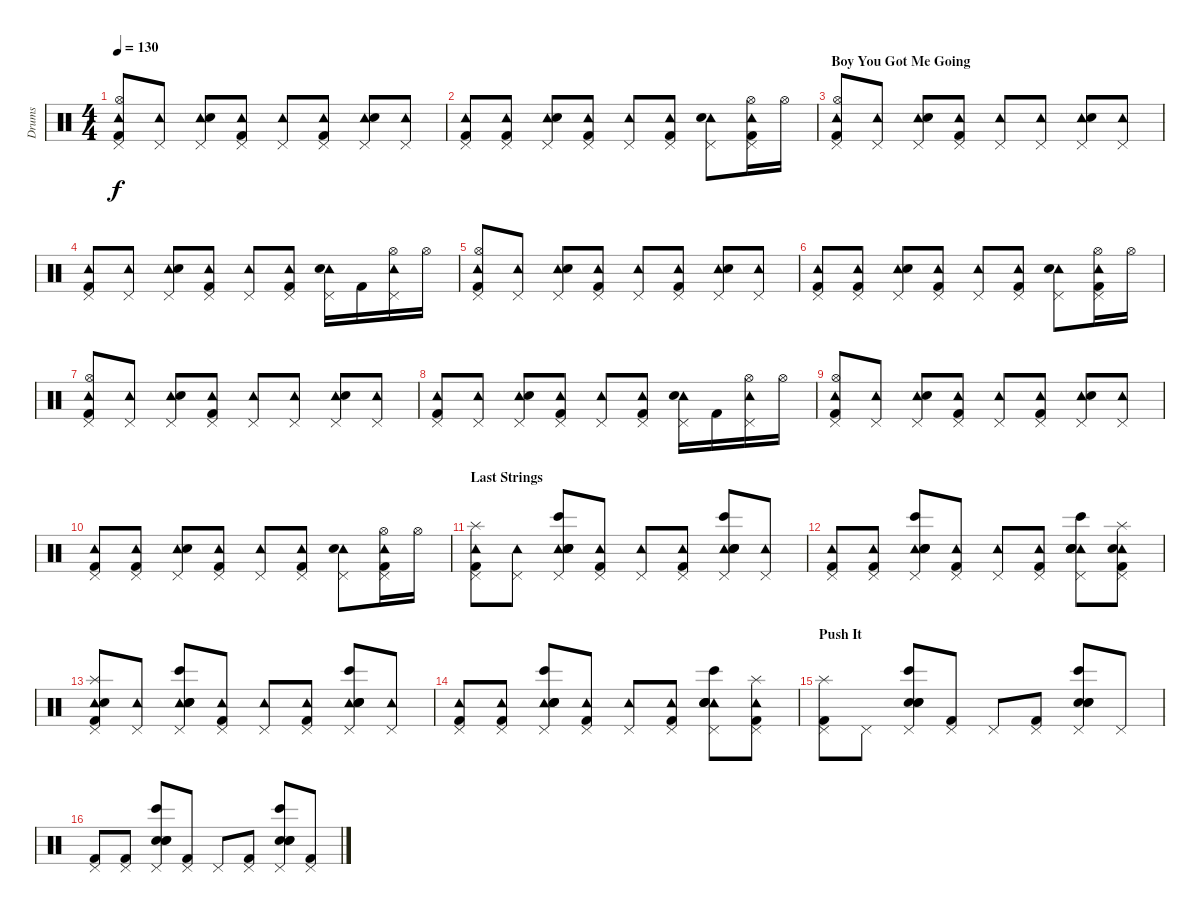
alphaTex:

\track ("Drums" "Drums") {instrument percussion}
\staff {score}
\articulation defaults
\ts (4 4)
\tempo 130
\clef neutral
\ks c
("Tambourine (hit)" "Pedal Hi-Hat (hit)" "Hi-Hat (open)" "Kick (hit) 2").8{dy f} ("Tambourine (hit)" "Pedal Hi-Hat (hit)").8 ("Tambourine (hit)" "Pedal Hi-Hat (hit)" "Electric Snare (hit)").8 ("Tambourine (hit)" "Pedal Hi-Hat (hit)" "Kick (hit) 2").8 ("Tambourine (hit)" "Pedal Hi-Hat (hit)").8 ("Tambourine (hit)" "Pedal Hi-Hat (hit)" "Kick (hit) 2").8 ("Tambourine (hit)" "Pedal Hi-Hat (hit)" "Electric Snare (hit)").8 ("Tambourine (hit)" "Pedal Hi-Hat (hit)").8 |
("Tambourine (hit)" "Pedal Hi-Hat (hit)" "Kick (hit) 2").8 ("Tambourine (hit)" "Pedal Hi-Hat (hit)" "Kick (hit) 2").8 ("Tambourine (hit)" "Pedal Hi-Hat (hit)" "Electric Snare (hit)").8 ("Tambourine (hit)" "Pedal Hi-Hat (hit)" "Kick (hit) 2").8 ("Tambourine (hit)" "Pedal Hi-Hat (hit)").8 ("Tambourine (hit)" "Pedal Hi-Hat (hit)" "Kick (hit) 2").8 ("Tambourine (hit)" "Pedal Hi-Hat (hit)" "Electric Snare (hit)").8 ("Tambourine (hit)" "Pedal Hi-Hat (hit)" "Hi-Hat (open)" "Kick (hit) 2").16 "Hi-Hat (open)".16 |
\section ("" "Boy You Got Me Going")
("Tambourine (hit)" "Pedal Hi-Hat (hit)" "Hi-Hat (open)" "Kick (hit) 2").8 ("Tambourine (hit)" "Pedal Hi-Hat (hit)").8 ("Tambourine (hit)" "Pedal Hi-Hat (hit)" "Electric Snare (hit)").8 ("Tambourine (hit)" "Pedal Hi-Hat (hit)" "Kick (hit) 2").8 ("Tambourine (hit)" "Pedal Hi-Hat (hit)").8 ("Tambourine (hit)" "Pedal Hi-Hat (hit)").8 ("Tambourine (hit)" "Pedal Hi-Hat (hit)" "Electric Snare (hit)").8 ("Tambourine (hit)" "Pedal Hi-Hat (hit)").8 |
("Tambourine (hit)" "Pedal Hi-Hat (hit)" "Kick (hit) 2").8 ("Tambourine (hit)" "Pedal Hi-Hat (hit)").8 ("Tambourine (hit)" "Pedal Hi-Hat (hit)" "Electric Snare (hit)").8 ("Tambourine (hit)" "Pedal Hi-Hat (hit)" "Kick (hit) 2").8 ("Tambourine (hit)" "Pedal Hi-Hat (hit)").8 ("Tambourine (hit)" "Pedal Hi-Hat (hit)" "Kick (hit) 2").8 ("Tambourine (hit)" "Pedal Hi-Hat (hit)" "Electric Snare (hit)").16 "Kick (hit) 2".16 ("Tambourine (hit)" "Pedal Hi-Hat (hit)" "Hi-Hat (open)").16 "Hi-Hat (open)".16 |
("Tambourine (hit)" "Pedal Hi-Hat (hit)" "Hi-Hat (open)" "Kick (hit) 2").8 ("Tambourine (hit)" "Pedal Hi-Hat (hit)").8 ("Tambourine (hit)" "Pedal Hi-Hat (hit)" "Electric Snare (hit)").8 ("Tambourine (hit)" "Pedal Hi-Hat (hit)" "Kick (hit) 2").8 ("Tambourine (hit)" "Pedal Hi-Hat (hit)").8 ("Tambourine (hit)" "Pedal Hi-Hat (hit)" "Kick (hit) 2").8 ("Tambourine (hit)" "Pedal Hi-Hat (hit)" "Electric Snare (hit)").8 ("Tambourine (hit)" "Pedal Hi-Hat (hit)").8 |
("Tambourine (hit)" "Pedal Hi-Hat (hit)" "Kick (hit) 2").8 ("Tambourine (hit)" "Pedal Hi-Hat (hit)" "Kick (hit) 2").8 ("Tambourine (hit)" "Pedal Hi-Hat (hit)" "Electric Snare (hit)").8 ("Tambourine (hit)" "Pedal Hi-Hat (hit)" "Kick (hit) 2").8 ("Tambourine (hit)" "Pedal Hi-Hat (hit)").8 ("Tambourine (hit)" "Pedal Hi-Hat (hit)" "Kick (hit) 2").8 ("Tambourine (hit)" "Pedal Hi-Hat (hit)" "Electric Snare (hit)").8 ("Tambourine (hit)" "Pedal Hi-Hat (hit)" "Hi-Hat (open)" "Kick (hit) 2").16 "Hi-Hat (open)".16 |
("Tambourine (hit)" "Pedal Hi-Hat (hit)" "Hi-Hat (open)" "Kick (hit) 2").8 ("Tambourine (hit)" "Pedal Hi-Hat (hit)").8 ("Tambourine (hit)" "Pedal Hi-Hat (hit)" "Electric Snare (hit)").8 ("Tambourine (hit)" "Pedal Hi-Hat (hit)" "Kick (hit) 2").8 ("Tambourine (hit)" "Pedal Hi-Hat (hit)").8 ("Tambourine (hit)" "Pedal Hi-Hat (hit)").8 ("Tambourine (hit)" "Pedal Hi-Hat (hit)" "Electric Snare (hit)").8 ("Tambourine (hit)" "Pedal Hi-Hat (hit)").8 |
("Tambourine (hit)" "Pedal Hi-Hat (hit)" "Kick (hit) 2").8 ("Tambourine (hit)" "Pedal Hi-Hat (hit)").8 ("Tambourine (hit)" "Pedal Hi-Hat (hit)" "Electric Snare (hit)").8 ("Tambourine (hit)" "Pedal Hi-Hat (hit)" "Kick (hit) 2").8 ("Tambourine (hit)" "Pedal Hi-Hat (hit)").8 ("Tambourine (hit)" "Pedal Hi-Hat (hit)" "Kick (hit) 2").8 ("Tambourine (hit)" "Pedal Hi-Hat (hit)" "Electric Snare (hit)").16 "Kick (hit) 2".16 ("Tambourine (hit)" "Pedal Hi-Hat (hit)" "Hi-Hat (open)").16 "Hi-Hat (open)".16 |
("Tambourine (hit)" "Pedal Hi-Hat (hit)" "Hi-Hat (open)" "Kick (hit) 2").8 ("Tambourine (hit)" "Pedal Hi-Hat (hit)").8 ("Tambourine (hit)" "Pedal Hi-Hat (hit)" "Electric Snare (hit)").8 ("Tambourine (hit)" "Pedal Hi-Hat (hit)" "Kick (hit) 2").8 ("Tambourine (hit)" "Pedal Hi-Hat (hit)").8 ("Tambourine (hit)" "Pedal Hi-Hat (hit)" "Kick (hit) 2").8 ("Tambourine (hit)" "Pedal Hi-Hat (hit)" "Electric Snare (hit)").8 ("Tambourine (hit)" "Pedal Hi-Hat (hit)").8 |
("Tambourine (hit)" "Pedal Hi-Hat (hit)" "Kick (hit) 2").8 ("Tambourine (hit)" "Pedal Hi-Hat (hit)" "Kick (hit) 2").8 ("Tambourine (hit)" "Pedal Hi-Hat (hit)" "Electric Snare (hit)").8 ("Tambourine (hit)" "Pedal Hi-Hat (hit)" "Kick (hit) 2").8 ("Tambourine (hit)" "Pedal Hi-Hat (hit)").8 ("Tambourine (hit)" "Pedal Hi-Hat (hit)" "Kick (hit) 2").8 ("Tambourine (hit)" "Pedal Hi-Hat (hit)" "Electric Snare (hit)").8 ("Tambourine (hit)" "Pedal Hi-Hat (hit)" "Hi-Hat (open)" "Kick (hit) 2").16 "Hi-Hat (open)".16 |
\section ("" "Last Strings")
("Tambourine (hit)" "Pedal Hi-Hat (hit)" "Splash (hit)" "Kick (hit) 2").8 ("Tambourine (hit)" "Pedal Hi-Hat (hit)").8 ("Tambourine (hit)" "Pedal Hi-Hat (hit)" "Snare (hit) 2" "Electric Snare (hit)" "Bongo High (hit)" "Hand Clap (hit)").8 ("Tambourine (hit)" "Pedal Hi-Hat (hit)" "Kick (hit) 2").8 ("Tambourine (hit)" "Pedal Hi-Hat (hit)").8 ("Tambourine (hit)" "Pedal Hi-Hat (hit)" "Kick (hit) 2").8 ("Tambourine (hit)" "Pedal Hi-Hat (hit)" "Snare (hit) 2" "Electric Snare (hit)" "Bongo High (hit)" "Hand Clap (hit)").8 ("Tambourine (hit)" "Pedal Hi-Hat (hit)").8 |
("Tambourine (hit)" "Pedal Hi-Hat (hit)" "Kick (hit) 2").8 ("Tambourine (hit)" "Pedal Hi-Hat (hit)" "Kick (hit) 2").8 ("Tambourine (hit)" "Pedal Hi-Hat (hit)" "Snare (hit) 2" "Electric Snare (hit)" "Bongo High (hit)" "Hand Clap (hit)").8 ("Tambourine (hit)" "Pedal Hi-Hat (hit)" "Kick (hit) 2").8 ("Tambourine (hit)" "Pedal Hi-Hat (hit)").8 ("Tambourine (hit)" "Pedal Hi-Hat (hit)" "Kick (hit) 2").8 ("Tambourine (hit)" "Pedal Hi-Hat (hit)" "Snare (hit) 2" "Electric Snare (hit)" "Bongo High (hit)" "Hand Clap (hit)").8 ("Tambourine (hit)" "Pedal Hi-Hat (hit)" "Splash (hit)" "Hand Clap (hit)" "Kick (hit) 2").8 |
("Tambourine (hit)" "Pedal Hi-Hat (hit)" "Splash (hit)" "Hand Clap (hit)" "Kick (hit) 2").8 ("Tambourine (hit)" "Pedal Hi-Hat (hit)").8 ("Tambourine (hit)" "Pedal Hi-Hat (hit)" "Snare (hit) 2" "Electric Snare (hit)" "Bongo High (hit)" "Hand Clap (hit)").8 ("Tambourine (hit)" "Pedal Hi-Hat (hit)" "Kick (hit) 2").8 ("Tambourine (hit)" "Pedal Hi-Hat (hit)").8 ("Tambourine (hit)" "Pedal Hi-Hat (hit)" "Kick (hit) 2").8 ("Tambourine (hit)" "Pedal Hi-Hat (hit)" "Snare (hit) 2" "Electric Snare (hit)" "Bongo High (hit)" "Hand Clap (hit)").8 ("Tambourine (hit)" "Pedal Hi-Hat (hit)").8 |
("Tambourine (hit)" "Pedal Hi-Hat (hit)" "Kick (hit) 2").8 ("Tambourine (hit)" "Pedal Hi-Hat (hit)" "Kick (hit) 2").8 ("Tambourine (hit)" "Pedal Hi-Hat (hit)" "Snare (hit) 2" "Electric Snare (hit)" "Bongo High (hit)" "Hand Clap (hit)").8 ("Tambourine (hit)" "Pedal Hi-Hat (hit)" "Kick (hit) 2").8 ("Tambourine (hit)" "Pedal Hi-Hat (hit)").8 ("Tambourine (hit)" "Pedal Hi-Hat (hit)" "Kick (hit) 2").8 ("Tambourine (hit)" "Pedal Hi-Hat (hit)" "Snare (hit) 2" "Electric Snare (hit)" "Bongo High (hit)" "Hand Clap (hit)").8 ("Tambourine (hit)" "Pedal Hi-Hat (hit)" "Splash (hit)" "Kick (hit) 2").8 |
\section ("" "Push It")
("Pedal Hi-Hat (hit)" "Splash (hit)" "Kick (hit) 2").8 "Pedal Hi-Hat (hit)".8 ("Pedal Hi-Hat (hit)" "Snare (hit) 2" "Electric Snare (hit)" "Bongo High (hit)" "Hand Clap (hit)").8 ("Pedal Hi-Hat (hit)" "Kick (hit) 2").8 "Pedal Hi-Hat (hit)".8 ("Pedal Hi-Hat (hit)" "Kick (hit) 2").8 ("Pedal Hi-Hat (hit)" "Snare (hit) 2" "Electric Snare (hit)" "Bongo High (hit)" "Hand Clap (hit)").8 "Pedal Hi-Hat (hit)".8 |
("Pedal Hi-Hat (hit)" "Kick (hit) 2").8 ("Pedal Hi-Hat (hit)" "Kick (hit) 2").8 ("Pedal Hi-Hat (hit)" "Snare (hit) 2" "Electric Snare (hit)" "Bongo High (hit)" "Hand Clap (hit)").8 ("Pedal Hi-Hat (hit)" "Kick (hit) 2").8 "Pedal Hi-Hat (hit)".8 ("Pedal Hi-Hat (hit)" "Kick (hit) 2").8 ("Pedal Hi-Hat (hit)" "Snare (hit) 2" "Electric Snare (hit)" "Bongo High (hit)" "Hand Clap (hit)").8 ("Pedal Hi-Hat (hit)" "Kick (hit) 2").8
